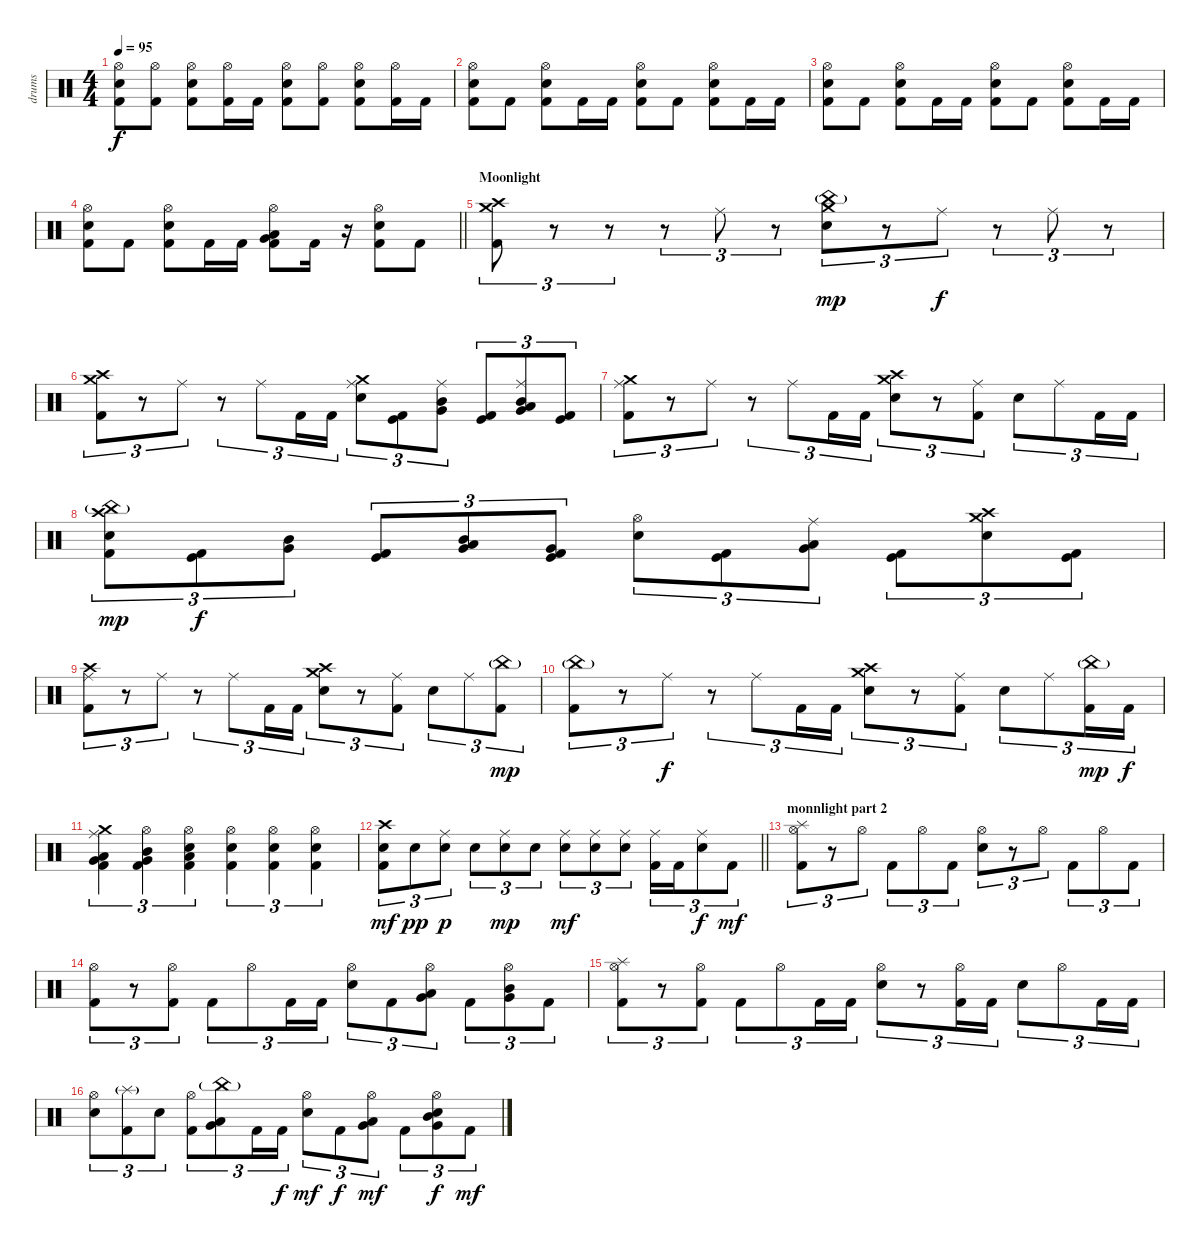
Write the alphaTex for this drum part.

\track ("drums" "drums") {instrument percussion}
\staff {score}
\articulation defaults
\ts (4 4)
\tempo 95
\clef neutral
\ks c
("Hi-Hat (open)" "Electric Snare (hit)" "Kick (hit) 2").8{dy f} ("Hi-Hat (open)" "Kick (hit) 2").8 ("Hi-Hat (open)" "Electric Snare (hit)" "Kick (hit) 2").8 ("Hi-Hat (open)" "Kick (hit) 2").16 "Kick (hit) 2".16 ("Hi-Hat (open)" "Electric Snare (hit)" "Kick (hit) 2").8 ("Hi-Hat (open)" "Kick (hit) 2").8 ("Hi-Hat (open)" "Electric Snare (hit)" "Kick (hit) 2").8 ("Hi-Hat (open)" "Kick (hit) 2").16 "Kick (hit) 2".16 |
("Hi-Hat (open)" "Electric Snare (hit)" "Kick (hit) 2").8 "Kick (hit) 2".8 ("Hi-Hat (open)" "Electric Snare (hit)" "Kick (hit) 2").8 "Kick (hit) 2".16 "Kick (hit) 2".16 ("Hi-Hat (open)" "Electric Snare (hit)" "Kick (hit) 2").8 "Kick (hit) 2".8 ("Hi-Hat (open)" "Electric Snare (hit)" "Kick (hit) 2").8 "Kick (hit) 2".16 "Kick (hit) 2".16 |
("Hi-Hat (open)" "Electric Snare (hit)" "Kick (hit) 2").8 "Kick (hit) 2".8 ("Hi-Hat (open)" "Electric Snare (hit)" "Kick (hit) 2").8 "Kick (hit) 2".16 "Kick (hit) 2".16 ("Hi-Hat (open)" "Electric Snare (hit)" "Kick (hit) 2").8 "Kick (hit) 2".8 ("Hi-Hat (open)" "Electric Snare (hit)" "Kick (hit) 2").8 "Kick (hit) 2".16 "Kick (hit) 2".16 |
\barLineRight lightlight
("Hi-Hat (open)" "Electric Snare (hit)" "Kick (hit) 2").8 "Kick (hit) 2".8 ("Hi-Hat (open)" "Electric Snare (hit)" "Kick (hit) 2").8 "Kick (hit) 2".16 "Kick (hit) 2".16 ("Hi-Hat (open)" "Low Floor Tom (hit)" "Very Low Tom (hit)" "Kick (hit) 2").8 "Kick (hit) 2".16 r.16 ("Hi-Hat (open)" "Electric Snare (hit)" "Kick (hit) 2").8 "Kick (hit) 2".8 |
\section ("" "Moonlight")
("Crash medium (hit)" "Crash high (hit)" "Kick (hit) 2").8{tu (3 2)} r.8{tu (3 2)} r.8{tu (3 2)} r.8{tu (3 2)} "Ride (middle)".8{tu (3 2)} r.8{tu (3 2)} ("Crash medium (hit)" "China (hit)"{g} "Electric Snare (hit)").8{tu (3 2) dy mp} r.8{tu (3 2)} "Ride (middle)".8{tu (3 2) dy f} r.8{tu (3 2)} "Ride (middle)".8{tu (3 2)} r.8{tu (3 2)} |
("Crash high (hit)" "Crash medium (hit)" "Kick (hit) 2").8{tu (3 2)} r.8{tu (3 2)} "Ride (middle)".8{tu (3 2)} r.8{tu (3 2)} "Ride (middle)".8{tu (3 2)} "Kick (hit) 2".16{tu (3 2)} "Kick (hit) 2".16{tu (3 2)} ("Crash medium (hit)" "Ride (middle)" "Electric Snare (hit)").8{tu (3 2)} ("Kick (hit)" "Kick (hit) 2").8{tu (3 2)} ("Ride (middle)" "Mid Tom (hit)" "Very Low Tom (hit)").8{tu (3 2)} ("Kick (hit)" "Kick (hit) 2").8{tu (3 2)} ("Ride (middle)" "Low Floor Tom (hit)" "Very Low Tom (hit)" "Mid Tom (hit)").8{tu (3 2)} ("Kick (hit)" "Kick (hit) 2").8{tu (3 2)} |
("Crash medium (hit)" "Ride (middle)" "Kick (hit) 2").8{tu (3 2)} r.8{tu (3 2)} "Ride (middle)".8{tu (3 2)} r.8{tu (3 2)} "Ride (middle)".8{tu (3 2)} "Kick (hit) 2".16{tu (3 2)} "Kick (hit) 2".16{tu (3 2)} ("Crash high (hit)" "Crash medium (hit)" "Electric Snare (hit)").8{tu (3 2)} r.8{tu (3 2)} ("Ride (middle)" "Kick (hit) 2").8{tu (3 2)} "Electric Snare (hit)".8{tu (3 2)} "Ride (middle)".8{tu (3 2)} "Kick (hit) 2".16{tu (3 2)} "Kick (hit) 2".16{tu (3 2)} |
("China (hit)"{g} "Crash high (hit)" "Electric Snare (hit)" "Kick (hit) 2").8{tu (3 2) dy mp} ("Kick (hit)" "Kick (hit) 2").8{tu (3 2) dy f} ("Very Low Tom (hit)" "Mid Tom (hit)").8{tu (3 2)} ("Kick (hit)" "Kick (hit) 2").8{tu (3 2)} ("Mid Tom (hit)" "Low Floor Tom (hit)" "Very Low Tom (hit)").8{tu (3 2)} ("Very Low Tom (hit)" "Kick (hit)" "Kick (hit) 2").8{tu (3 2)} ("Hi-Hat (open)" "Electric Snare (hit)").8{tu (3 2)} ("Kick (hit)" "Kick (hit) 2").8{tu (3 2)} ("Ride (middle)" "Low Floor Tom (hit)" "Very Low Tom (hit)").8{tu (3 2)} ("Kick (hit)" "Kick (hit) 2").8{tu (3 2)} ("Crash high (hit)" "Crash medium (hit)" "Electric Snare (hit)").8{tu (3 2)} ("Kick (hit)" "Kick (hit) 2").8{tu (3 2)} |
("Crash high (hit)" "Ride (middle)" "Kick (hit) 2").8{tu (3 2)} r.8{tu (3 2)} "Ride (middle)".8{tu (3 2)} r.8{tu (3 2)} "Ride (middle)".8{tu (3 2)} "Kick (hit) 2".16{tu (3 2)} "Kick (hit) 2".16{tu (3 2)} ("Crash high (hit)" "Crash medium (hit)" "Electric Snare (hit)").8{tu (3 2)} r.8{tu (3 2)} ("Ride (middle)" "Kick (hit) 2").8{tu (3 2)} "Electric Snare (hit)".8{tu (3 2)} "Ride (middle)".8{tu (3 2)} ("China (hit)"{g} "Kick (hit) 2").8{tu (3 2) dy mp} |
("China (hit)"{g} "Kick (hit) 2").8{tu (3 2)} r.8{tu (3 2)} "Ride (middle)".8{tu (3 2) dy f} r.8{tu (3 2)} "Ride (middle)".8{tu (3 2)} "Kick (hit) 2".16{tu (3 2)} "Kick (hit) 2".16{tu (3 2)} ("Crash high (hit)" "Crash medium (hit)" "Electric Snare (hit)").8{tu (3 2)} r.8{tu (3 2)} ("Ride (middle)" "Kick (hit) 2").8{tu (3 2)} "Electric Snare (hit)".8{tu (3 2)} "Ride (middle)".8{tu (3 2)} ("China (hit)"{g} "Kick (hit) 2").16{tu (3 2) dy mp} "Kick (hit) 2".16{tu (3 2) dy f} |
("Crash medium (hit)" "Ride (middle)" "Very Low Tom (hit)" "Low Floor Tom (hit)" "Kick (hit) 2").4{tu (3 2)} ("Hi-Hat (open)" "Mid Tom (hit)" "Very Low Tom (hit)" "Kick (hit) 2").4{tu (3 2)} ("Hi-Hat (open)" "Electric Snare (hit)" "Low Floor Tom (hit)" "Kick (hit) 2").4{tu (3 2)} ("Hi-Hat (open)" "Electric Snare (hit)" "Kick (hit) 2").4{tu (3 2)} ("Hi-Hat (open)" "Electric Snare (hit)" "Kick (hit) 2").4{tu (3 2)} ("Hi-Hat (open)" "Electric Snare (hit)" "Kick (hit) 2").4{tu (3 2)} |
\barLineRight lightlight
("Crash high (hit)" "Electric Snare (hit)" "Kick (hit) 2").8{tu (3 2) dy mf} "Electric Snare (hit)".8{tu (3 2) dy pp} ("Ride (middle)" "Electric Snare (hit)").8{tu (3 2) dy p} "Electric Snare (hit)".8{tu (3 2)} ("Ride (middle)" "Electric Snare (hit)").8{tu (3 2) dy mp} "Electric Snare (hit)".8{tu (3 2)} ("Ride (middle)" "Electric Snare (hit)").8{tu (3 2) dy mf} ("Ride (middle)" "Electric Snare (hit)").8{tu (3 2)} ("Ride (middle)" "Electric Snare (hit)").8{tu (3 2)} ("Ride (middle)" "Kick (hit) 2").16{tu (3 2)} "Kick (hit) 2".16{tu (3 2)} ("Ride (middle)" "Electric Snare (hit)").8{tu (3 2) dy f} "Kick (hit) 2".8{tu (3 2) dy mf} |
\section ("" "monnlight part 2")
("Splash (hit)" "Hi-Hat (open)" "Kick (hit) 2").8{tu (3 2)} r.8{tu (3 2)} "Hi-Hat (open)".8{tu (3 2)} "Kick (hit) 2".8{tu (3 2)} "Hi-Hat (open)".8{tu (3 2)} "Kick (hit) 2".8{tu (3 2)} ("Hi-Hat (open)" "Electric Snare (hit)").8{tu (3 2)} r.8{tu (3 2)} "Hi-Hat (open)".8{tu (3 2)} "Kick (hit) 2".8{tu (3 2)} "Hi-Hat (open)".8{tu (3 2)} "Kick (hit) 2".8{tu (3 2)} |
("Hi-Hat (open)" "Kick (hit) 2").8{tu (3 2)} r.8{tu (3 2)} ("Hi-Hat (open)" "Kick (hit) 2").8{tu (3 2)} "Kick (hit) 2".8{tu (3 2)} "Hi-Hat (open)".8{tu (3 2)} "Kick (hit) 2".16{tu (3 2)} "Kick (hit) 2".16{tu (3 2)} ("Hi-Hat (open)" "Electric Snare (hit)").8{tu (3 2)} "Kick (hit) 2".8{tu (3 2)} ("Hi-Hat (open)" "Very Low Tom (hit)" "Low Floor Tom (hit)").8{tu (3 2)} "Kick (hit) 2".8{tu (3 2)} ("Hi-Hat (open)" "Very Low Tom (hit)" "Mid Tom (hit)").8{tu (3 2)} "Kick (hit) 2".8{tu (3 2)} |
("Splash (hit)" "Hi-Hat (open)" "Kick (hit) 2").8{tu (3 2)} r.8{tu (3 2)} ("Hi-Hat (open)" "Kick (hit) 2").8{tu (3 2)} "Kick (hit) 2".8{tu (3 2)} "Hi-Hat (open)".8{tu (3 2)} "Kick (hit) 2".16{tu (3 2)} "Kick (hit) 2".16{tu (3 2)} ("Hi-Hat (open)" "Electric Snare (hit)").8{tu (3 2)} r.8{tu (3 2)} ("Hi-Hat (open)" "Kick (hit) 2").16{tu (3 2)} "Kick (hit) 2".16{tu (3 2)} "Electric Snare (hit)".8{tu (3 2)} "Hi-Hat (open)".8{tu (3 2)} "Kick (hit) 2".16{tu (3 2)} "Kick (hit) 2".16{tu (3 2)} |
("Hi-Hat (open)" "Electric Snare (hit)").8{tu (3 2)} ("Splash (hit)"{g} "Kick (hit) 2").8{tu (3 2)} "Electric Snare (hit)".8{tu (3 2)} ("Hi-Hat (open)" "Kick (hit) 2").8{tu (3 2)} ("China (hit)"{g} "Very Low Tom (hit)" "Low Floor Tom (hit)").8{tu (3 2)} "Kick (hit) 2".16{tu (3 2)} "Kick (hit) 2".16{tu (3 2) dy f} ("Hi-Hat (open)" "Electric Snare (hit)").8{tu (3 2) dy mf} "Kick (hit) 2".8{tu (3 2) dy f} ("Hi-Hat (open)" "Low Floor Tom (hit)" "Very Low Tom (hit)").8{tu (3 2) dy mf} "Kick (hit) 2".8{tu (3 2)} ("Hi-Hat (open)" "Electric Snare (hit)" "Very Low Tom (hit)" "Mid Tom (hit)").8{tu (3 2) dy f} "Kick (hit) 2".8{tu (3 2) dy mf}
